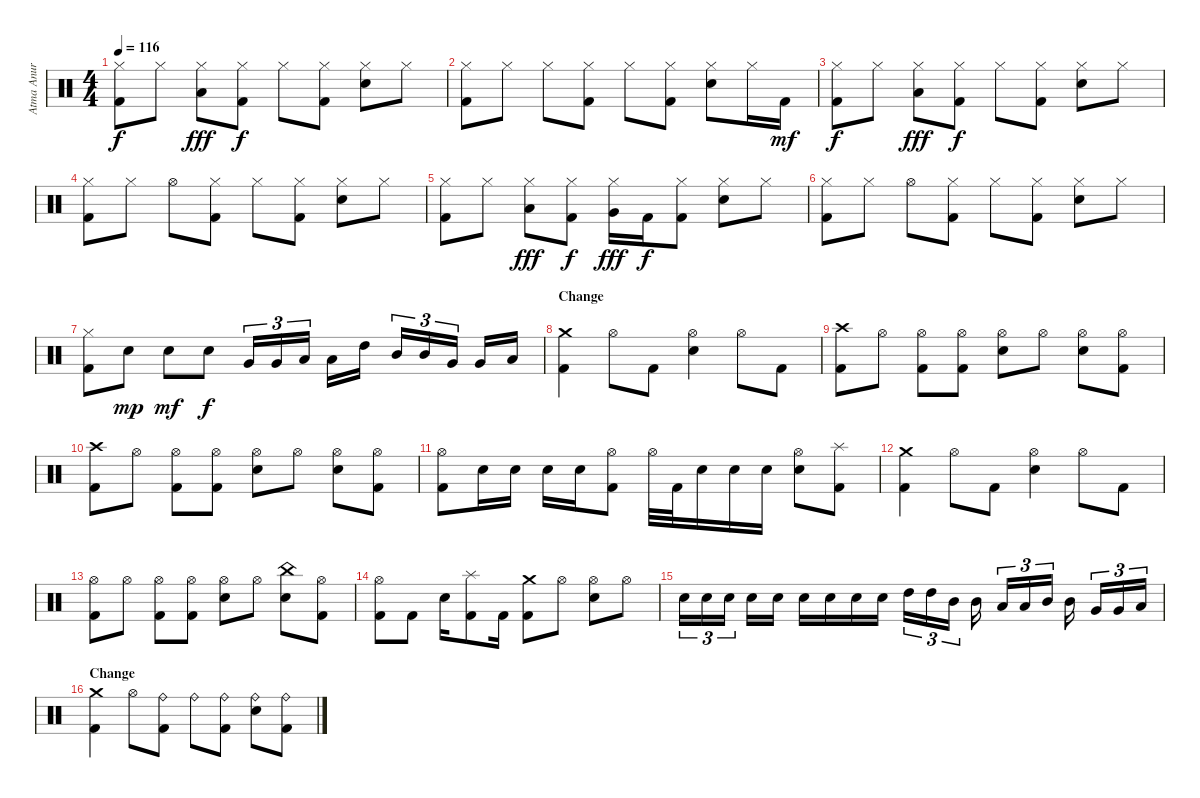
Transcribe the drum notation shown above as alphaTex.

\track ("Atma Anur " "Atma Anur ") {instrument percussion}
\staff {score}
\articulation defaults
\ts (4 4)
\tempo 116
\clef neutral
\ks c
("Hi-Hat (closed)" "Kick (hit) 2").8{dy f} "Hi-Hat (closed)".8 ("Hi-Hat (closed)" "Low Tom (hit)").8{dy fff} ("Hi-Hat (closed)" "Kick (hit) 2").8{dy f} "Hi-Hat (closed)".8 ("Hi-Hat (closed)" "Kick (hit) 2").8 ("Hi-Hat (closed)" "Snare (hit) 2").8 "Hi-Hat (closed)".8 |
("Hi-Hat (closed)" "Kick (hit) 2").8 "Hi-Hat (closed)".8 "Hi-Hat (closed)".8 ("Hi-Hat (closed)" "Kick (hit) 2").8 "Hi-Hat (closed)".8 ("Hi-Hat (closed)" "Kick (hit) 2").8 ("Hi-Hat (closed)" "Snare (hit) 2").8 "Hi-Hat (closed)".16 "Kick (hit) 2".16{dy mf} |
("Hi-Hat (closed)" "Kick (hit) 2").8{dy f} "Hi-Hat (closed)".8 ("Hi-Hat (closed)" "Low Tom (hit)").8{dy fff} ("Hi-Hat (closed)" "Kick (hit) 2").8{dy f} "Hi-Hat (closed)".8 ("Hi-Hat (closed)" "Kick (hit) 2").8 ("Hi-Hat (closed)" "Snare (hit) 2").8 "Hi-Hat (closed)".8 |
("Hi-Hat (closed)" "Kick (hit) 2").8 "Hi-Hat (closed)".8 "Hi-Hat (open)".8 ("Hi-Hat (closed)" "Kick (hit) 2").8 "Hi-Hat (closed)".8 ("Hi-Hat (closed)" "Kick (hit) 2").8 ("Hi-Hat (closed)" "Snare (hit) 2").8 "Hi-Hat (closed)".8 |
("Hi-Hat (closed)" "Kick (hit) 2").8 "Hi-Hat (closed)".8 ("Hi-Hat (closed)" "Low Tom (hit)").8{dy fff} ("Hi-Hat (closed)" "Kick (hit) 2").8{dy f} ("Hi-Hat (closed)" "Very Low Tom (hit)").16{dy fff} "Kick (hit) 2".16{dy f} ("Hi-Hat (closed)" "Kick (hit) 2").8 ("Hi-Hat (closed)" "Snare (hit) 2").8 "Hi-Hat (closed)".8 |
("Hi-Hat (closed)" "Kick (hit) 2").8 "Hi-Hat (closed)".8 "Hi-Hat (open)".8 ("Hi-Hat (closed)" "Kick (hit) 2").8 "Hi-Hat (closed)".8 ("Hi-Hat (closed)" "Kick (hit) 2").8 ("Hi-Hat (closed)" "Snare (hit) 2").8 "Hi-Hat (closed)".8 |
("Hi-Hat (closed)" "Kick (hit) 2").8 "Snare (hit) 2".8{dy mp} "Snare (hit) 2".8{dy mf} "Snare (hit) 2".8{dy f} "Very Low Tom (hit)".16{tu (3 2)} "Very Low Tom (hit)".16{tu (3 2)} "Low Tom (hit)".16{tu (3 2)} "Low Tom (hit)".16 "High Tom (hit)".16 "Mid Tom (hit)".16{tu (3 2)} "Mid Tom (hit)".16{tu (3 2)} "Very Low Tom (hit)".16{tu (3 2)} "Very Low Tom (hit)".16 "Low Floor Tom (hit)".16 |
\section ("" "Change")
("Crash medium (hit)" "Kick (hit) 2").4 "Hi-Hat (open)".8 "Kick (hit) 2".8 ("Hi-Hat (open)" "Snare (hit) 2").4 "Hi-Hat (open)".8 "Kick (hit) 2".8 |
("Crash high (hit)" "Kick (hit) 2").8 "Hi-Hat (open)".8 ("Hi-Hat (open)" "Kick (hit) 2").8 ("Hi-Hat (open)" "Kick (hit) 2").8 ("Hi-Hat (open)" "Snare (hit) 2").8 "Hi-Hat (open)".8 ("Hi-Hat (open)" "Snare (hit) 2").8 ("Hi-Hat (open)" "Kick (hit) 2").8 |
("Crash high (hit)" "Kick (hit) 2").8 "Hi-Hat (open)".8 ("Hi-Hat (open)" "Kick (hit) 2").8 ("Hi-Hat (open)" "Kick (hit) 2").8 ("Hi-Hat (open)" "Snare (hit) 2").8 "Hi-Hat (open)".8 ("Hi-Hat (open)" "Snare (hit) 2").8 ("Hi-Hat (open)" "Kick (hit) 2").8 |
("Hi-Hat (open)" "Kick (hit) 2").8 "Snare (hit) 2".16 "Snare (hit) 2".16 "Snare (hit) 2".16 "Snare (hit) 2".16 ("Hi-Hat (open)" "Kick (hit) 2").8 "Hi-Hat (open)".32 "Kick (hit) 2".32 "Snare (hit) 2".16 "Snare (hit) 2".16 "Snare (hit) 2".16 ("Hi-Hat (open)" "Snare (hit) 2").8 ("Splash (hit)" "Kick (hit) 2").8 |
("Crash medium (hit)" "Kick (hit) 2").4 "Hi-Hat (open)".8 "Kick (hit) 2".8 ("Hi-Hat (open)" "Snare (hit) 2").4 "Hi-Hat (open)".8 "Kick (hit) 2".8 |
("Hi-Hat (open)" "Kick (hit) 2").8 "Hi-Hat (open)".8 ("Hi-Hat (open)" "Kick (hit) 2").8 ("Hi-Hat (open)" "Kick (hit) 2").8 ("Hi-Hat (open)" "Snare (hit) 2").8 "Hi-Hat (open)".8 ("China (hit)" "Snare (hit) 2").8 ("Hi-Hat (open)" "Kick (hit) 2").8 |
("Hi-Hat (open)" "Kick (hit) 2").8 "Kick (hit) 2".8 "Snare (hit) 2".16 ("Splash (hit)" "Kick (hit) 2").8 "Kick (hit) 2".16 ("Crash medium (hit)" "Kick (hit) 2").8 "Hi-Hat (open)".8 ("Hi-Hat (open)" "Snare (hit) 2").8 "Hi-Hat (open)".8 |
"Snare (hit) 2".16{tu (3 2)} "Snare (hit) 2".16{tu (3 2)} "Snare (hit) 2".16{tu (3 2)} "Snare (hit) 2".16 "Snare (hit) 2".16 "Snare (hit) 2".16 "Snare (hit) 2".16 "Snare (hit) 2".16 "Snare (hit) 2".16 "High Tom (hit)".16{tu (3 2)} "High Tom (hit)".16{tu (3 2)} "Mid Tom (hit)".16{tu (3 2)} "Mid Tom (hit)".16 "Low Tom (hit)".16{tu (3 2)} "Low Tom (hit)".16{tu (3 2)} "Mid Tom (hit)".16{tu (3 2)} "Mid Tom (hit)".16 "Very Low Tom (hit)".16{tu (3 2)} "Very Low Tom (hit)".16{tu (3 2)} "Low Floor Tom (hit)".16{tu (3 2)} |
\section ("" "Change")
("Crash medium (hit)" "Kick (hit) 2").4 "Hi-Hat (open)".8 ("Ride (bell)" "Kick (hit) 2").8 "Ride (bell)".8 ("Ride (bell)" "Kick (hit) 2").8 ("Ride (bell)" "Snare (hit) 2").8 ("Ride (bell)" "Kick (hit) 2").8
